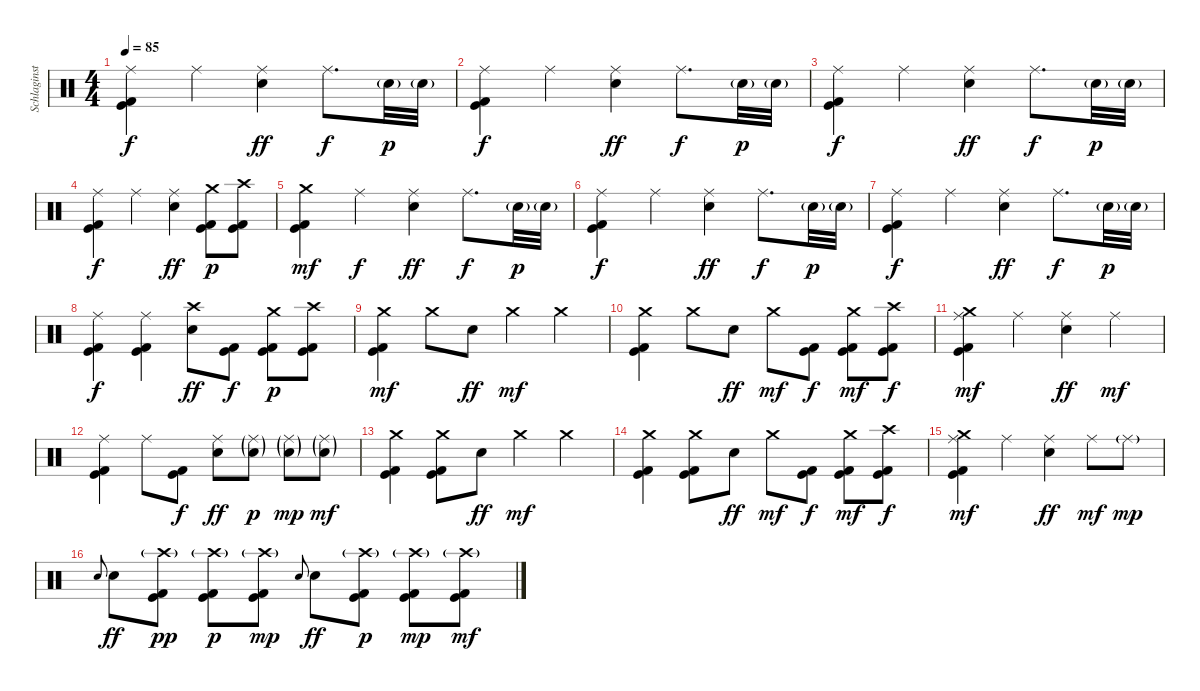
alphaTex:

\track ("Schlaginstrumente - Auswahl" "Schlaginst") {instrument percussion}
\staff {score}
\articulation defaults
\ts (4 4)
\tempo 85
\clef neutral
\ks c
("Ride (middle)" "Kick (hit) 2" "Kick (hit)").4{dy f} "Ride (middle)".4 ("Ride (middle)" "Snare (hit) 2").4{dy ff} "Ride (middle)".8{d dy f} "Snare (hit) 2"{g}.32{dy p} "Snare (hit) 2"{g}.32 |
("Ride (middle)" "Kick (hit) 2" "Kick (hit)").4{dy f} "Ride (middle)".4 ("Ride (middle)" "Snare (hit) 2").4{dy ff} "Ride (middle)".8{d dy f} "Snare (hit) 2"{g}.32{dy p} "Snare (hit) 2"{g}.32 |
("Ride (middle)" "Kick (hit) 2" "Kick (hit)").4{dy f} "Ride (middle)".4 ("Ride (middle)" "Snare (hit) 2").4{dy ff} "Ride (middle)".8{d dy f} "Snare (hit) 2"{g}.32{dy p} "Snare (hit) 2"{g}.32 |
("Ride (middle)" "Kick (hit) 2" "Kick (hit)").4{dy f} "Ride (middle)".4 ("Ride (middle)" "Snare (hit) 2").4{dy ff} ("Crash medium (hit)" "Kick (hit) 2" "Kick (hit)").8{dy p} ("Crash high (hit)" "Kick (hit) 2" "Kick (hit)").8 |
("Crash medium (hit)" "Kick (hit) 2" "Kick (hit)").4{dy mf} "Ride (middle)".4{dy f} ("Ride (middle)" "Snare (hit) 2").4{dy ff} "Ride (middle)".8{d dy f} "Snare (hit) 2"{g}.32{dy p} "Snare (hit) 2"{g}.32 |
("Ride (middle)" "Kick (hit) 2" "Kick (hit)").4{dy f} "Ride (middle)".4 ("Ride (middle)" "Snare (hit) 2").4{dy ff} "Ride (middle)".8{d dy f} "Snare (hit) 2"{g}.32{dy p} "Snare (hit) 2"{g}.32 |
("Ride (middle)" "Kick (hit) 2" "Kick (hit)").4{dy f} "Ride (middle)".4 ("Ride (middle)" "Snare (hit) 2").4{dy ff} "Ride (middle)".8{d dy f} "Snare (hit) 2"{g}.32{dy p} "Snare (hit) 2"{g}.32 |
("Ride (middle)" "Kick (hit) 2" "Kick (hit)").4{dy f} ("Ride (middle)" "Kick (hit) 2" "Kick (hit)").4 ("Crash high (hit)" "Snare (hit) 2").8{dy ff} ("Kick (hit) 2" "Kick (hit)").8{dy f} ("Crash medium (hit)" "Kick (hit) 2" "Kick (hit)").8{dy p} ("Crash high (hit)" "Kick (hit) 2" "Kick (hit)").8 |
("Crash medium (hit)" "Kick (hit) 2" "Kick (hit)").4{dy mf} "Crash medium (hit)".8 "Snare (hit) 2".8{dy ff} "Crash medium (hit)".4{dy mf} "Crash medium (hit)".4 |
("Crash medium (hit)" "Kick (hit) 2" "Kick (hit)").4 "Crash medium (hit)".8 "Snare (hit) 2".8{dy ff} "Crash medium (hit)".8{dy mf} ("Kick (hit) 2" "Kick (hit)").8{dy f} ("Crash medium (hit)" "Kick (hit) 2" "Kick (hit)").8{dy mf} ("Crash high (hit)" "Kick (hit) 2" "Kick (hit)").8{dy f} |
("Ride (middle)" "Crash medium (hit)" "Kick (hit) 2" "Kick (hit)").4{dy mf} "Ride (middle)".4 ("Ride (middle)" "Snare (hit) 2").4{dy ff} "Ride (middle)".4{dy mf} |
("Ride (middle)" "Kick (hit) 2" "Kick (hit)").4 "Ride (middle)".8 ("Kick (hit) 2" "Kick (hit)").8{dy f} ("Ride (middle)" "Snare (hit) 2").8{dy ff} ("Ride (middle)"{g} "Snare (hit) 2"{g}).8{dy p} ("Ride (middle)"{g} "Snare (hit) 2"{g}).8{dy mp} ("Ride (middle)"{g} "Snare (hit) 2"{g}).8{dy mf} |
("Crash medium (hit)" "Kick (hit) 2" "Kick (hit)").4 ("Crash medium (hit)" "Kick (hit) 2" "Kick (hit)").8 "Snare (hit) 2".8{dy ff} "Crash medium (hit)".4{dy mf} "Crash medium (hit)".4 |
("Crash medium (hit)" "Kick (hit) 2" "Kick (hit)").4 ("Crash medium (hit)" "Kick (hit) 2" "Kick (hit)").8 "Snare (hit) 2".8{dy ff} "Crash medium (hit)".8{dy mf} ("Kick (hit) 2" "Kick (hit)").8{dy f} ("Crash medium (hit)" "Kick (hit) 2" "Kick (hit)").8{dy mf} ("Crash high (hit)" "Kick (hit) 2" "Kick (hit)").8{dy f} |
("Ride (middle)" "Crash medium (hit)" "Kick (hit) 2" "Kick (hit)").4{dy mf} "Ride (middle)".4 ("Ride (middle)" "Snare (hit) 2").4{dy ff} "Ride (middle)".8{dy mf} "Ride (middle)"{g}.8{dy mp} |
"Snare (hit) 2".8{gr onbeat} "Snare (hit) 2".8{dy ff} ("Crash high (hit)"{g} "Kick (hit) 2" "Kick (hit)").8{dy pp} ("Crash high (hit)"{g} "Kick (hit) 2" "Kick (hit)").8{dy p} ("Crash high (hit)"{g} "Kick (hit) 2" "Kick (hit)").8{dy mp} "Snare (hit) 2".8{gr onbeat} "Snare (hit) 2".8{dy ff} ("Crash high (hit)"{g} "Kick (hit) 2" "Kick (hit)").8{dy p} ("Crash high (hit)"{g} "Kick (hit) 2" "Kick (hit)").8{dy mp} ("Crash high (hit)"{g} "Kick (hit) 2" "Kick (hit)").8{dy mf}
